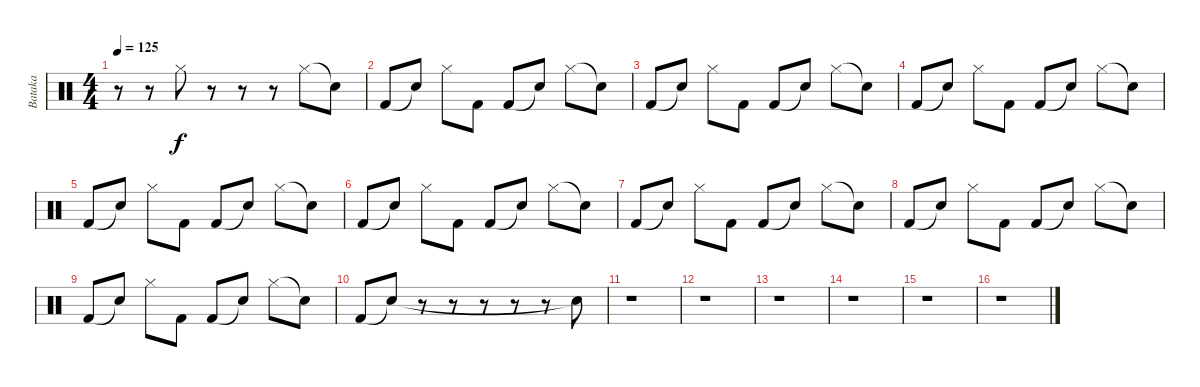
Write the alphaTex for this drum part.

\track ("Bataka" "Bataka") {instrument percussion}
\staff {score}
\articulation defaults
\ts (4 4)
\tempo 125
\clef neutral
\ks c
r.8{dy f} r.8 "Hi-Hat (closed)".8 r.8 r.8 r.8 "Hi-Hat (closed)".8 "Snare (hit)"{t}.8 |
"Kick (hit) 2".8 "Snare (hit)"{t}.8 "Hi-Hat (closed)".8 "Kick (hit) 2".8 "Kick (hit) 2".8 "Snare (hit)"{t}.8 "Hi-Hat (closed)".8 "Snare (hit)"{t}.8 |
"Kick (hit) 2".8 "Snare (hit)"{t}.8 "Hi-Hat (closed)".8 "Kick (hit) 2".8 "Kick (hit) 2".8 "Snare (hit)"{t}.8 "Hi-Hat (closed)".8 "Snare (hit)"{t}.8 |
"Kick (hit) 2".8 "Snare (hit)"{t}.8 "Hi-Hat (closed)".8 "Kick (hit) 2".8 "Kick (hit) 2".8 "Snare (hit)"{t}.8 "Hi-Hat (closed)".8 "Snare (hit)"{t}.8 |
"Kick (hit) 2".8 "Snare (hit)"{t}.8 "Hi-Hat (closed)".8 "Kick (hit) 2".8 "Kick (hit) 2".8 "Snare (hit)"{t}.8 "Hi-Hat (closed)".8 "Snare (hit)"{t}.8 |
"Kick (hit) 2".8 "Snare (hit)"{t}.8 "Hi-Hat (closed)".8 "Kick (hit) 2".8 "Kick (hit) 2".8 "Snare (hit)"{t}.8 "Hi-Hat (closed)".8 "Snare (hit)"{t}.8 |
"Kick (hit) 2".8 "Snare (hit)"{t}.8 "Hi-Hat (closed)".8 "Kick (hit) 2".8 "Kick (hit) 2".8 "Snare (hit)"{t}.8 "Hi-Hat (closed)".8 "Snare (hit)"{t}.8 |
"Kick (hit) 2".8 "Snare (hit)"{t}.8 "Hi-Hat (closed)".8 "Kick (hit) 2".8 "Kick (hit) 2".8 "Snare (hit)"{t}.8 "Hi-Hat (closed)".8 "Snare (hit)"{t}.8 |
"Kick (hit) 2".8 "Snare (hit)"{t}.8 "Hi-Hat (closed)".8 "Kick (hit) 2".8 "Kick (hit) 2".8 "Snare (hit)"{t}.8 "Hi-Hat (closed)".8 "Snare (hit)"{t}.8 |
"Kick (hit) 2".8 "Snare (hit)"{t}.8 r.8 r.8 r.8 r.8 r.8 "Snare (hit)"{t}.8 |
r.1 |
r.1 |
r.1 |
r.1 |
r.1 |
r.1
